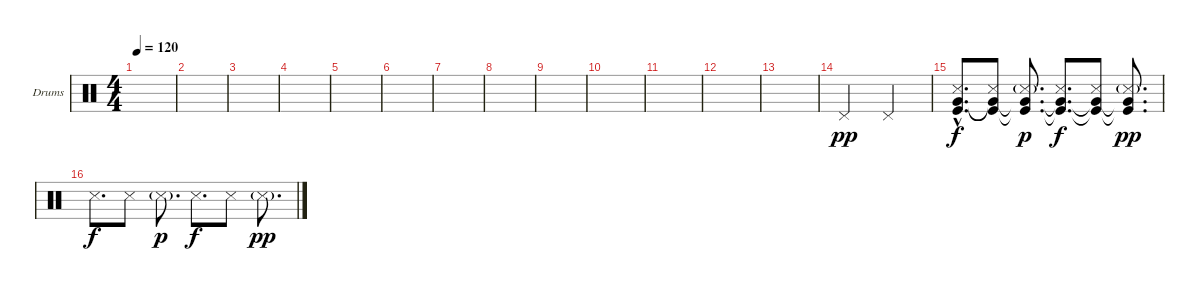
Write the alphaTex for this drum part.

\bracketExtendMode groupsimilarinstruments
\firstSystemTrackNameOrientation horizontal
\otherSystemsTrackNameOrientation horizontal
\track ("Drumkit (Christoph)" "Drums") {instrument percussion}
\staff {score}
\articulation defaults
\ts (4 4)
\tempo 120
\clef neutral
\ks c
|
|
|
|
|
|
|
|
|
|
|
|
|
"Pedal Hi-Hat (hit)".2{dy pp} "Pedal Hi-Hat (hit)".2 |
("Snare (side stick) 3" "Kick (hit)"{hac} "Very Low Tom (hit)"{hac}).8{d dy f} ("Snare (side stick) 3" "Very Low Tom (hit)"{t} "Kick (hit)"{t}).8 ("Snare (side stick) 3"{g} "Very Low Tom (hit)"{t} "Kick (hit)"{t}).8{d dy p} ("Snare (side stick) 3" "Very Low Tom (hit)"{t} "Kick (hit)"{t}).8{d dy f} ("Snare (side stick) 3" "Very Low Tom (hit)"{t} "Kick (hit)"{t}).8 ("Snare (side stick) 3"{g} "Very Low Tom (hit)"{t} "Kick (hit)"{t}).8{d dy pp} |
"Snare (side stick) 3".8{d dy f} "Snare (side stick) 3".8 "Snare (side stick) 3"{g}.8{d dy p} "Snare (side stick) 3".8{d dy f} "Snare (side stick) 3".8 "Snare (side stick) 3"{g}.8{d dy pp}
